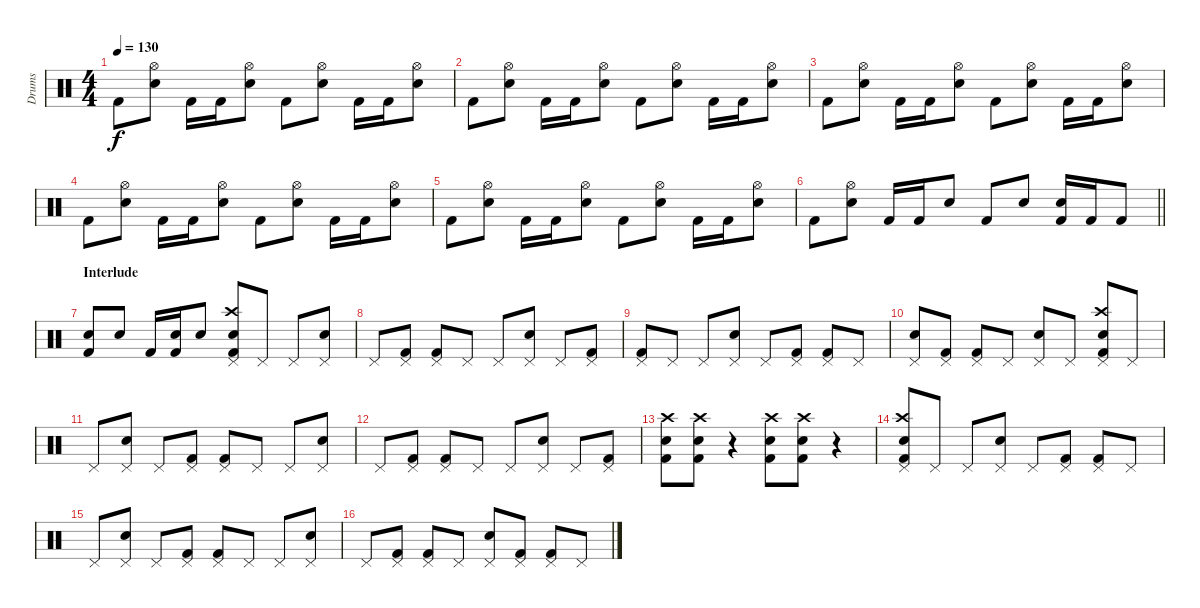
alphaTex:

\track ("Drums" "Drums") {instrument percussion}
\staff {score}
\articulation defaults
\ts (4 4)
\tempo 130
\clef neutral
\ks c "Kick (hit) 2".8{dy f}
("Hi-Hat (open)" "Snare (hit) 2").8 "Kick (hit) 2".16 "Kick (hit) 2".16 ("Hi-Hat (open)" "Snare (hit) 2").8 "Kick (hit) 2".8 ("Hi-Hat (open)" "Snare (hit) 2").8 "Kick (hit) 2".16 "Kick (hit) 2".16 ("Hi-Hat (open)" "Snare (hit) 2").8 |
"Kick (hit) 2".8 ("Hi-Hat (open)" "Snare (hit) 2").8 "Kick (hit) 2".16 "Kick (hit) 2".16 ("Hi-Hat (open)" "Snare (hit) 2").8 "Kick (hit) 2".8 ("Hi-Hat (open)" "Snare (hit) 2").8 "Kick (hit) 2".16 "Kick (hit) 2".16 ("Hi-Hat (open)" "Snare (hit) 2").8 |
"Kick (hit) 2".8 ("Hi-Hat (open)" "Snare (hit) 2").8 "Kick (hit) 2".16 "Kick (hit) 2".16 ("Hi-Hat (open)" "Snare (hit) 2").8 "Kick (hit) 2".8 ("Hi-Hat (open)" "Snare (hit) 2").8 "Kick (hit) 2".16 "Kick (hit) 2".16 ("Hi-Hat (open)" "Snare (hit) 2").8 |
"Kick (hit) 2".8 ("Hi-Hat (open)" "Snare (hit) 2").8 "Kick (hit) 2".16 "Kick (hit) 2".16 ("Hi-Hat (open)" "Snare (hit) 2").8 "Kick (hit) 2".8 ("Hi-Hat (open)" "Snare (hit) 2").8 "Kick (hit) 2".16 "Kick (hit) 2".16 ("Hi-Hat (open)" "Snare (hit) 2").8 |
"Kick (hit) 2".8 ("Hi-Hat (open)" "Snare (hit) 2").8 "Kick (hit) 2".16 "Kick (hit) 2".16 ("Hi-Hat (open)" "Snare (hit) 2").8 "Kick (hit) 2".8 ("Hi-Hat (open)" "Snare (hit) 2").8 "Kick (hit) 2".16 "Kick (hit) 2".16 ("Hi-Hat (open)" "Snare (hit) 2").8 |
\barLineRight lightlight "Kick (hit) 2".8
("Hi-Hat (open)" "Snare (hit) 2").8 "Kick (hit) 2".16 "Kick (hit) 2".16 "Snare (hit) 2".8 "Kick (hit) 2".8 "Snare (hit) 2".8 ("Snare (hit) 2" "Kick (hit) 2").16 "Kick (hit) 2".16 "Kick (hit) 2".8 |
\section ("" "Interlude")
("Snare (hit) 2" "Kick (hit) 2").8 "Snare (hit) 2".8 "Kick (hit) 2".16 ("Snare (hit) 2" "Kick (hit) 2").16 "Snare (hit) 2".8 ("Crash high (hit)" "Pedal Hi-Hat (hit)" "Snare (hit) 2" "Kick (hit) 2").8 "Pedal Hi-Hat (hit)".8 "Pedal Hi-Hat (hit)".8 ("Pedal Hi-Hat (hit)" "Snare (hit) 2").8 |
"Pedal Hi-Hat (hit)".8 ("Pedal Hi-Hat (hit)" "Kick (hit) 2").8 ("Pedal Hi-Hat (hit)" "Kick (hit) 2").8 "Pedal Hi-Hat (hit)".8 "Pedal Hi-Hat (hit)".8 ("Pedal Hi-Hat (hit)" "Snare (hit) 2").8 "Pedal Hi-Hat (hit)".8 ("Pedal Hi-Hat (hit)" "Kick (hit) 2").8 |
("Pedal Hi-Hat (hit)" "Kick (hit) 2").8 "Pedal Hi-Hat (hit)".8 "Pedal Hi-Hat (hit)".8 ("Pedal Hi-Hat (hit)" "Snare (hit) 2").8 "Pedal Hi-Hat (hit)".8 ("Pedal Hi-Hat (hit)" "Kick (hit) 2").8 ("Pedal Hi-Hat (hit)" "Kick (hit) 2").8 "Pedal Hi-Hat (hit)".8 |
("Pedal Hi-Hat (hit)" "Snare (hit) 2").8 ("Pedal Hi-Hat (hit)" "Kick (hit) 2").8 ("Pedal Hi-Hat (hit)" "Kick (hit) 2").8 "Pedal Hi-Hat (hit)".8 ("Pedal Hi-Hat (hit)" "Snare (hit) 2").8 "Pedal Hi-Hat (hit)".8 ("Crash high (hit)" "Pedal Hi-Hat (hit)" "Kick (hit) 2" "Snare (hit) 2").8 "Pedal Hi-Hat (hit)".8 |
"Pedal Hi-Hat (hit)".8 ("Pedal Hi-Hat (hit)" "Snare (hit) 2").8 "Pedal Hi-Hat (hit)".8 ("Pedal Hi-Hat (hit)" "Kick (hit) 2").8 ("Pedal Hi-Hat (hit)" "Kick (hit) 2").8 "Pedal Hi-Hat (hit)".8 "Pedal Hi-Hat (hit)".8 ("Pedal Hi-Hat (hit)" "Snare (hit) 2").8 |
"Pedal Hi-Hat (hit)".8 ("Pedal Hi-Hat (hit)" "Kick (hit) 2").8 ("Pedal Hi-Hat (hit)" "Kick (hit) 2").8 "Pedal Hi-Hat (hit)".8 "Pedal Hi-Hat (hit)".8 ("Pedal Hi-Hat (hit)" "Snare (hit) 2").8 "Pedal Hi-Hat (hit)".8 ("Pedal Hi-Hat (hit)" "Kick (hit) 2").8 |
("Crash high (hit)" "Snare (hit) 2" "Kick (hit) 2").8 ("Crash high (hit)" "Snare (hit) 2" "Kick (hit) 2").8 r.4 ("Crash high (hit)" "Snare (hit) 2" "Kick (hit) 2").8 ("Crash high (hit)" "Snare (hit) 2" "Kick (hit) 2").8 r.4 |
("Crash high (hit)" "Pedal Hi-Hat (hit)" "Kick (hit) 2" "Snare (hit) 2").8 "Pedal Hi-Hat (hit)".8 "Pedal Hi-Hat (hit)".8 ("Pedal Hi-Hat (hit)" "Snare (hit) 2").8 "Pedal Hi-Hat (hit)".8 ("Pedal Hi-Hat (hit)" "Kick (hit) 2").8 ("Pedal Hi-Hat (hit)" "Kick (hit) 2").8 "Pedal Hi-Hat (hit)".8 |
"Pedal Hi-Hat (hit)".8 ("Pedal Hi-Hat (hit)" "Snare (hit) 2").8 "Pedal Hi-Hat (hit)".8 ("Pedal Hi-Hat (hit)" "Kick (hit) 2").8 ("Pedal Hi-Hat (hit)" "Kick (hit) 2").8 "Pedal Hi-Hat (hit)".8 "Pedal Hi-Hat (hit)".8 ("Pedal Hi-Hat (hit)" "Snare (hit) 2").8 |
"Pedal Hi-Hat (hit)".8 ("Pedal Hi-Hat (hit)" "Kick (hit) 2").8 ("Pedal Hi-Hat (hit)" "Kick (hit) 2").8 "Pedal Hi-Hat (hit)".8 ("Pedal Hi-Hat (hit)" "Snare (hit) 2").8 ("Pedal Hi-Hat (hit)" "Kick (hit) 2").8 ("Pedal Hi-Hat (hit)" "Kick (hit) 2").8 "Pedal Hi-Hat (hit)".8
